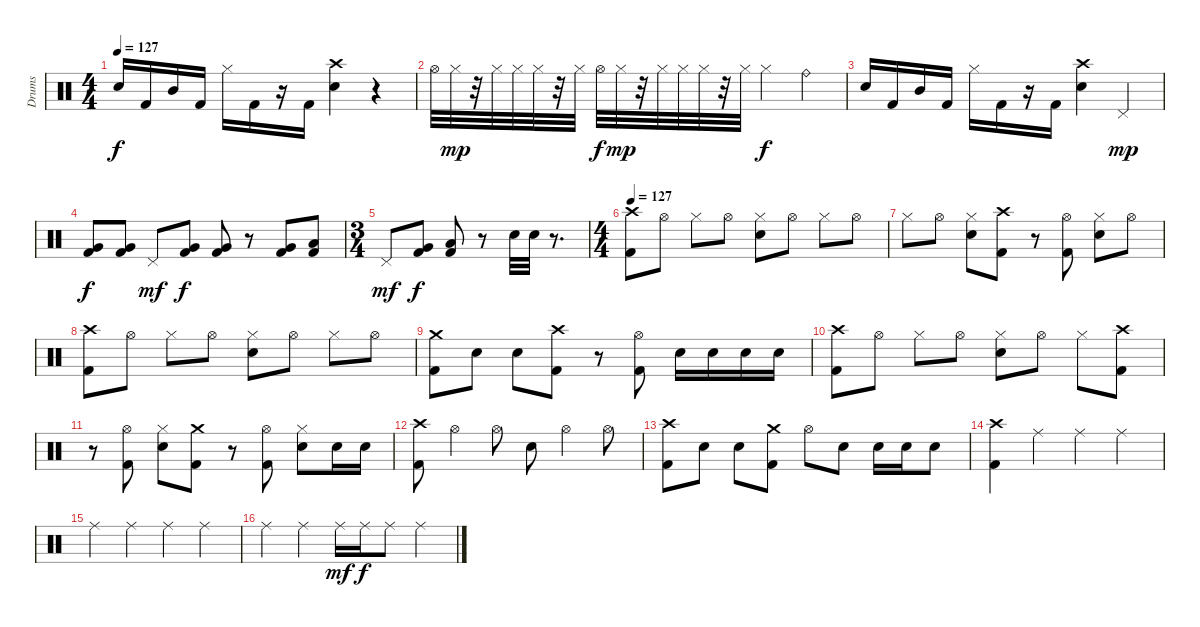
\track ("Drums" "Drums") {instrument percussion}
\staff {score}
\articulation defaults
\ts (4 4)
\tempo 127
\clef neutral
\ks c "Electric Snare (hit)".16{dy f} "Kick (hit) 2".16 "Mid Tom (hit)".16 "Kick (hit) 2".16 "Hi-Hat (closed)".16 "Kick (hit) 2".16
r.16 "Kick (hit) 2".16 ("Crash high (hit)" "Electric Snare (hit)").4 r.4 |
"Hi-Hat (open)".32 "Hi-Hat (closed)".32{dy mp} r.32 "Hi-Hat (closed)".32 "Hi-Hat (closed)".32 "Hi-Hat (closed)".32 r.32 "Hi-Hat (closed)".32 "Hi-Hat (open)".32{dy f} "Hi-Hat (closed)".32{dy mp} r.32 "Hi-Hat (closed)".32 "Hi-Hat (closed)".32 "Hi-Hat (closed)".32 r.32 "Hi-Hat (closed)".32 "Hi-Hat (closed)".4{dy f} "Ride (bell)".4 |
"Electric Snare (hit)".16 "Kick (hit) 2".16 "Mid Tom (hit)".16 "Kick (hit) 2".16 "Hi-Hat (closed)".16 "Kick (hit) 2".16 r.16 "Kick (hit) 2".16 ("Crash high (hit)" "Electric Snare (hit)").4 "Pedal Hi-Hat (hit)".4{dy mp} |
("Kick (hit) 2" "Very Low Tom (hit)").8{dy f} ("Very Low Tom (hit)" "Kick (hit) 2").8 "Pedal Hi-Hat (hit)".8{dy mf} ("Very Low Tom (hit)" "Kick (hit) 2").8{dy f} ("Very Low Tom (hit)" "Kick (hit) 2").8 r.8 ("Very Low Tom (hit)" "Kick (hit) 2").8 ("Kick (hit) 2" "Low Floor Tom (hit)").8 |
\ts (3 4)
"Pedal Hi-Hat (hit)".8{dy mf} ("Very Low Tom (hit)" "Kick (hit) 2").8{dy f} ("Low Floor Tom (hit)" "Kick (hit) 2").8 r.8 "Electric Snare (hit)".32 "Electric Snare (hit)".32 r.8{d} |
\ts (4 4)
\tempo 127
("Crash high (hit)" "Kick (hit) 2").8 "Hi-Hat (open)".8 "Hi-Hat (closed)".8 "Hi-Hat (open)".8 ("Hi-Hat (closed)" "Electric Snare (hit)").8 "Hi-Hat (open)".8 "Hi-Hat (closed)".8 "Hi-Hat (open)".8 |
"Hi-Hat (closed)".8 "Hi-Hat (open)".8 ("Hi-Hat (closed)" "Electric Snare (hit)").8 ("Crash high (hit)" "Kick (hit) 2").8 r.8 ("Hi-Hat (open)" "Kick (hit) 2").8 ("Electric Snare (hit)" "Hi-Hat (closed)").8 "Hi-Hat (open)".8 |
("Kick (hit) 2" "Crash high (hit)").8 "Hi-Hat (open)".8 "Hi-Hat (closed)".8 "Hi-Hat (open)".8 ("Hi-Hat (closed)" "Electric Snare (hit)").8 "Hi-Hat (open)".8 "Hi-Hat (closed)".8 "Hi-Hat (open)".8 |
("Kick (hit) 2" "Crash medium (hit)").8 "Electric Snare (hit)".8 "Electric Snare (hit)".8 ("Kick (hit) 2" "Crash high (hit)").8 r.8 ("Kick (hit) 2" "Hi-Hat (open)").8 "Electric Snare (hit)".16 "Electric Snare (hit)".16 "Electric Snare (hit)".16 "Electric Snare (hit)".16 |
("Crash high (hit)" "Kick (hit) 2").8 "Hi-Hat (open)".8 "Hi-Hat (closed)".8 "Hi-Hat (open)".8 ("Hi-Hat (closed)" "Electric Snare (hit)").8 "Hi-Hat (open)".8 "Hi-Hat (closed)".8 ("Crash high (hit)" "Kick (hit) 2").8 |
r.8 ("Hi-Hat (open)" "Kick (hit) 2").8 ("Electric Snare (hit)" "Hi-Hat (closed)").8 ("Crash medium (hit)" "Kick (hit) 2").8 r.8 ("Kick (hit) 2" "Hi-Hat (open)").8 ("Electric Snare (hit)" "Hi-Hat (closed)").8 "Electric Snare (hit)".16 "Electric Snare (hit)".16 |
("Kick (hit) 2" "Crash high (hit)").8 "Hi-Hat (open)".4 "Hi-Hat (open)".8 "Electric Snare (hit)".8 "Hi-Hat (open)".4 "Hi-Hat (open)".8 |
("Kick (hit) 2" "Crash high (hit)").8 "Electric Snare (hit)".8 "Electric Snare (hit)".8 ("Kick (hit) 2" "Crash medium (hit)").8 "Hi-Hat (open)".8 "Electric Snare (hit)".8 "Electric Snare (hit)".16 "Electric Snare (hit)".16 "Electric Snare (hit)".8 |
("Kick (hit) 2" "Crash high (hit)").4 "Ride (middle)".4 "Ride (middle)".4 "Ride (middle)".4 |
"Ride (middle)".4 "Ride (middle)".4 "Ride (middle)".4 "Ride (middle)".4 |
"Ride (middle)".4 "Ride (middle)".4 "Ride (middle)".16{dy mf} "Ride (middle)".16{dy f} "Ride (middle)".8 "Ride (middle)".4
